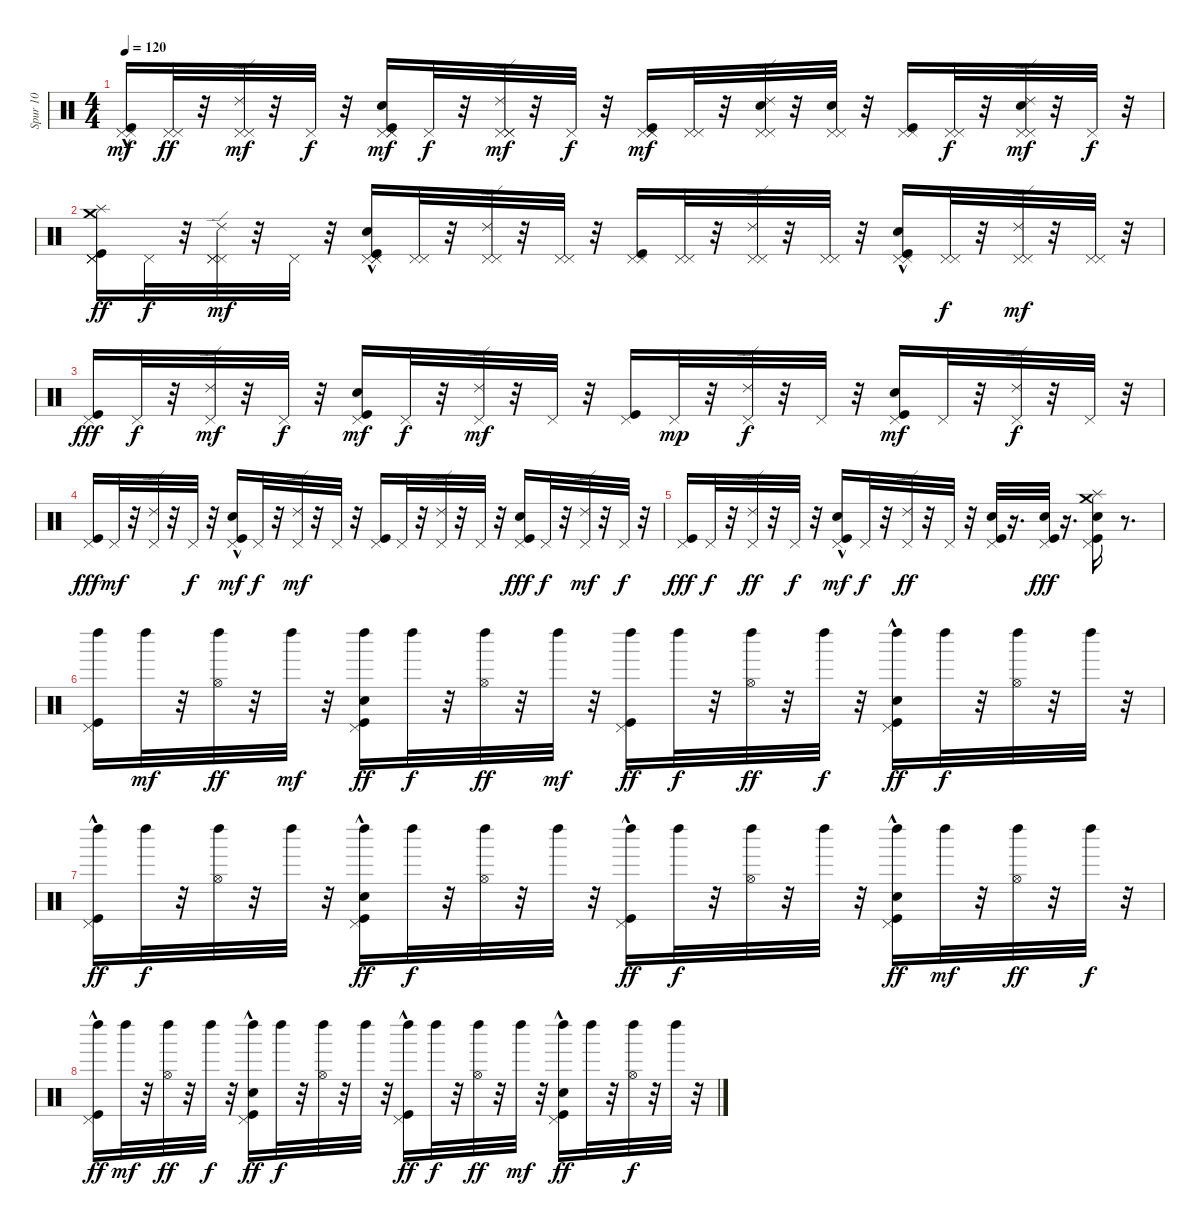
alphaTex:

\track ("Spur 10" "Spur 10") {instrument percussion}
\staff {score}
\articulation defaults
\ts (4 4)
\tempo 120
\clef neutral
\ks c
("Kick (hit)"{hac} "Pedal Hi-Hat (hit)" "Pedal Hi-Hat (hit)").16{dy mf} ("Pedal Hi-Hat (hit)" "Pedal Hi-Hat (hit)").32{dy ff} r.32 ("Ride (edge) 2" "Pedal Hi-Hat (hit)" "Pedal Hi-Hat (hit)").32{dy mf} r.32 "Pedal Hi-Hat (hit)".32{dy f} r.32 ("Snare (hit) 2" "Kick (hit)" "Pedal Hi-Hat (hit)" "Pedal Hi-Hat (hit)" "Pedal Hi-Hat (hit)").16{dy mf} "Pedal Hi-Hat (hit)".32{dy f} r.32 ("Ride (edge) 2" "Pedal Hi-Hat (hit)" "Pedal Hi-Hat (hit)" "Pedal Hi-Hat (hit)").32{dy mf} r.32 "Pedal Hi-Hat (hit)".32{dy f} r.32 ("Kick (hit)" "Pedal Hi-Hat (hit)" "Pedal Hi-Hat (hit)" "Pedal Hi-Hat (hit)").16{dy mf} ("Pedal Hi-Hat (hit)" "Pedal Hi-Hat (hit)").32 r.32 ("Snare (hit) 2" "Ride (edge) 2" "Pedal Hi-Hat (hit)" "Pedal Hi-Hat (hit)").32 r.32 ("Snare (hit) 2" "Pedal Hi-Hat (hit)" "Pedal Hi-Hat (hit)").32 r.32 ("Kick (hit)" "Pedal Hi-Hat (hit)" "Pedal Hi-Hat (hit)").16 ("Pedal Hi-Hat (hit)" "Pedal Hi-Hat (hit)").32{dy f} r.32 ("Snare (hit) 2" "Ride (edge) 2" "Pedal Hi-Hat (hit)" "Pedal Hi-Hat (hit)").32{dy mf} r.32 "Pedal Hi-Hat (hit)".32{dy f} r.32 |
("Kick (hit)" "Pedal Hi-Hat (hit)" "Pedal Hi-Hat (hit)" "Pedal Hi-Hat (hit)" "Crash medium (hit)" "Splash (hit)").16{dy ff} "Pedal Hi-Hat (hit)".32{dy f} r.32 ("Ride (edge) 2" "Pedal Hi-Hat (hit)" "Pedal Hi-Hat (hit)" "Pedal Hi-Hat (hit)").32{dy mf} r.32 "Pedal Hi-Hat (hit)".32 r.32 ("Snare (hit) 2"{hac} "Kick (hit)"{hac} "Pedal Hi-Hat (hit)" "Pedal Hi-Hat (hit)" "Pedal Hi-Hat (hit)").16 ("Pedal Hi-Hat (hit)" "Pedal Hi-Hat (hit)").32 r.32 ("Ride (edge) 2" "Pedal Hi-Hat (hit)" "Pedal Hi-Hat (hit)").32 r.32 ("Pedal Hi-Hat (hit)" "Pedal Hi-Hat (hit)").32 r.32 ("Kick (hit)" "Pedal Hi-Hat (hit)" "Pedal Hi-Hat (hit)").16 ("Pedal Hi-Hat (hit)" "Pedal Hi-Hat (hit)").32 r.32 ("Ride (edge) 2" "Pedal Hi-Hat (hit)" "Pedal Hi-Hat (hit)").32 r.32 ("Pedal Hi-Hat (hit)" "Pedal Hi-Hat (hit)").32 r.32 ("Snare (hit) 2"{hac} "Kick (hit)"{hac} "Pedal Hi-Hat (hit)" "Pedal Hi-Hat (hit)").16 ("Pedal Hi-Hat (hit)" "Pedal Hi-Hat (hit)").32{dy f} r.32 ("Ride (edge) 2" "Pedal Hi-Hat (hit)" "Pedal Hi-Hat (hit)").32{dy mf} r.32 ("Pedal Hi-Hat (hit)" "Pedal Hi-Hat (hit)").32 r.32 |
("Kick (hit)" "Pedal Hi-Hat (hit)").16{dy fff} "Pedal Hi-Hat (hit)".32{dy f} r.32 ("Pedal Hi-Hat (hit)" "Ride (edge) 2").32{dy mf} r.32 "Pedal Hi-Hat (hit)".32{dy f} r.32 ("Snare (hit) 2" "Kick (hit)" "Pedal Hi-Hat (hit)").16{dy mf} "Pedal Hi-Hat (hit)".32{dy f} r.32 ("Pedal Hi-Hat (hit)" "Ride (edge) 2").32{dy mf} r.32 "Pedal Hi-Hat (hit)".32 r.32 ("Kick (hit)" "Pedal Hi-Hat (hit)").16 "Pedal Hi-Hat (hit)".32{dy mp} r.32 ("Pedal Hi-Hat (hit)" "Ride (edge) 2").32{dy f} r.32 "Pedal Hi-Hat (hit)".32 r.32 ("Snare (hit) 2" "Kick (hit)" "Pedal Hi-Hat (hit)").16{dy mf} "Pedal Hi-Hat (hit)".32 r.32 ("Pedal Hi-Hat (hit)" "Ride (edge) 2").32{dy f} r.32 "Pedal Hi-Hat (hit)".32 r.32 |
("Kick (hit)" "Pedal Hi-Hat (hit)").16{dy fff} "Pedal Hi-Hat (hit)".32{dy mf} r.32 ("Pedal Hi-Hat (hit)" "Ride (edge) 2").32 r.32 "Pedal Hi-Hat (hit)".32{dy f} r.32 ("Snare (hit) 2" "Kick (hit)"{hac} "Pedal Hi-Hat (hit)").16{dy mf} "Pedal Hi-Hat (hit)".32{dy f} r.32 ("Pedal Hi-Hat (hit)" "Ride (edge) 2").32{dy mf} r.32 "Pedal Hi-Hat (hit)".32 r.32 ("Kick (hit)" "Pedal Hi-Hat (hit)").16 "Pedal Hi-Hat (hit)".32 r.32 ("Pedal Hi-Hat (hit)" "Ride (edge) 2").32 r.32 "Pedal Hi-Hat (hit)".32 r.32 ("Snare (hit) 2" "Kick (hit)" "Pedal Hi-Hat (hit)").16{dy fff} "Pedal Hi-Hat (hit)".32{dy f} r.32 ("Pedal Hi-Hat (hit)" "Ride (edge) 2").32{dy mf} r.32 "Pedal Hi-Hat (hit)".32{dy f} r.32 |
("Kick (hit)" "Pedal Hi-Hat (hit)").16{dy fff} "Pedal Hi-Hat (hit)".32{dy f} r.32 ("Pedal Hi-Hat (hit)" "Ride (edge) 2").32{dy ff} r.32 "Pedal Hi-Hat (hit)".32{dy f} r.32 ("Snare (hit) 2" "Kick (hit)"{hac} "Pedal Hi-Hat (hit)").16{dy mf} "Pedal Hi-Hat (hit)".32{dy f} r.32 ("Pedal Hi-Hat (hit)" "Ride (edge) 2").32{dy ff} r.32 "Pedal Hi-Hat (hit)".32 r.32 ("Snare (hit) 2" "Kick (hit)" "Pedal Hi-Hat (hit)").32 r.16{d} ("Snare (hit) 2" "Kick (hit)" "Pedal Hi-Hat (hit)").32{dy fff} r.16{d} ("Kick (hit)" "Snare (hit) 2" "Pedal Hi-Hat (hit)" "Crash medium (hit)" "Splash (hit)").16 r.8{d} |
("Kick (hit)" "Pedal Hi-Hat (hit)" "Left Maraca (hit)").16 "Left Maraca (hit)".32{dy mf} r.32 ("Hi-Hat (open)" "Left Maraca (hit)").32{dy ff} r.32 "Left Maraca (hit)".32{dy mf} r.32 ("Snare (hit) 2" "Kick (hit)" "Pedal Hi-Hat (hit)" "Left Maraca (hit)").16{dy ff} "Left Maraca (hit)".32{dy f} r.32 ("Hi-Hat (open)" "Left Maraca (hit)").32{dy ff} r.32 "Left Maraca (hit)".32{dy mf} r.32 ("Kick (hit)" "Pedal Hi-Hat (hit)" "Left Maraca (hit)").16{dy ff} "Left Maraca (hit)".32{dy f} r.32 ("Hi-Hat (open)" "Left Maraca (hit)").32{dy ff} r.32 "Left Maraca (hit)".32{dy f} r.32 ("Snare (hit) 2"{hac} "Kick (hit)" "Pedal Hi-Hat (hit)"{hac} "Left Maraca (hit)").16{dy ff} "Left Maraca (hit)".32{dy f} r.32 ("Hi-Hat (open)" "Left Maraca (hit)").32 r.32 "Left Maraca (hit)".32 r.32 |
("Kick (hit)" "Pedal Hi-Hat (hit)"{hac} "Left Maraca (hit)").16{dy ff} "Left Maraca (hit)".32{dy f} r.32 ("Hi-Hat (open)" "Left Maraca (hit)").32 r.32 "Left Maraca (hit)".32 r.32 ("Snare (hit) 2" "Kick (hit)" "Pedal Hi-Hat (hit)"{hac} "Left Maraca (hit)").16{dy ff} "Left Maraca (hit)".32{dy f} r.32 ("Hi-Hat (open)" "Left Maraca (hit)").32 r.32 "Left Maraca (hit)".32 r.32 ("Kick (hit)" "Pedal Hi-Hat (hit)"{hac} "Left Maraca (hit)").16{dy ff} "Left Maraca (hit)".32{dy f} r.32 ("Hi-Hat (open)" "Left Maraca (hit)").32 r.32 "Left Maraca (hit)".32 r.32 ("Snare (hit) 2"{hac} "Kick (hit)" "Pedal Hi-Hat (hit)"{hac} "Left Maraca (hit)").16{dy ff} "Left Maraca (hit)".32{dy mf} r.32 ("Hi-Hat (open)" "Left Maraca (hit)").32{dy ff} r.32 "Left Maraca (hit)".32{dy f} r.32 |
("Kick (hit)" "Pedal Hi-Hat (hit)"{hac} "Left Maraca (hit)").16{dy ff} "Left Maraca (hit)".32{dy mf} r.32 ("Hi-Hat (open)" "Left Maraca (hit)").32{dy ff} r.32 "Left Maraca (hit)".32{dy f} r.32 ("Snare (hit) 2"{hac} "Kick (hit)" "Pedal Hi-Hat (hit)"{hac} "Left Maraca (hit)").16{dy ff} "Left Maraca (hit)".32{dy f} r.32 ("Hi-Hat (open)" "Left Maraca (hit)").32 r.32 "Left Maraca (hit)".32 r.32 ("Kick (hit)" "Pedal Hi-Hat (hit)"{hac} "Left Maraca (hit)").16{dy ff} "Left Maraca (hit)".32{dy f} r.32 ("Hi-Hat (open)" "Left Maraca (hit)").32{dy ff} r.32 "Left Maraca (hit)".32{dy mf} r.32 ("Kick (hit)" "Snare (hit) 2"{hac} "Pedal Hi-Hat (hit)"{hac} "Left Maraca (hit)").16{dy ff} "Left Maraca (hit)".32 r.32 ("Hi-Hat (open)" "Left Maraca (hit)").32{dy f} r.32 "Left Maraca (hit)".32 r.32
